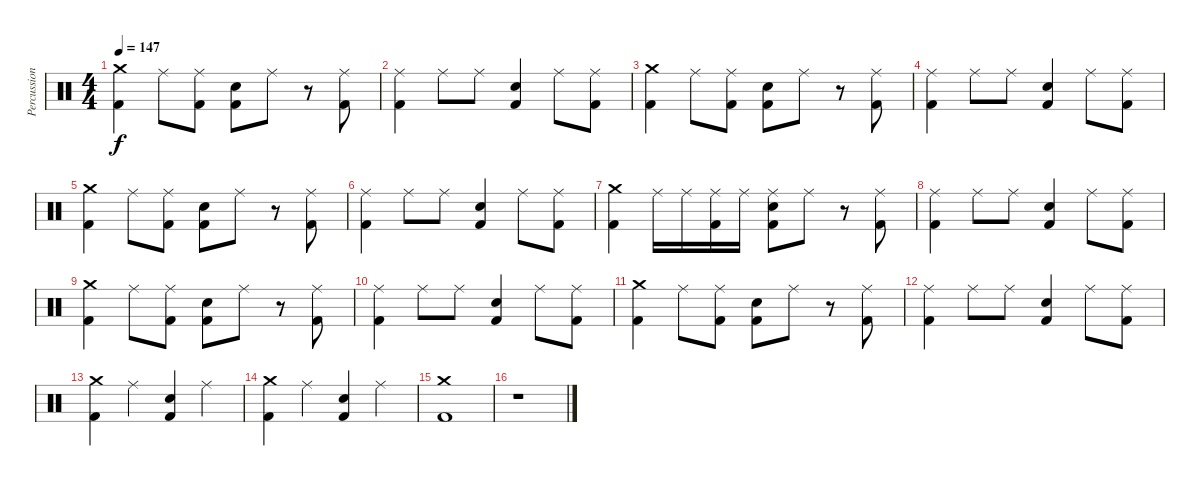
\track ("Percussion" "Percussion") {instrument percussion}
\staff {score}
\articulation defaults
\ts (4 4)
\tempo 147
\clef neutral
\ks c
("Crash medium (hit)" "Kick (hit) 2").4{dy f} "Ride (middle)".8 ("Ride (middle)" "Kick (hit) 2").8 ("Electric Snare (hit)" "Kick (hit) 2").8 "Ride (middle)".8 r.8 ("Ride (middle)" "Kick (hit) 2").8 |
("Ride (middle)" "Kick (hit) 2").4 "Ride (middle)".8 "Ride (middle)".8 ("Electric Snare (hit)" "Kick (hit) 2").4 "Ride (middle)".8 ("Ride (middle)" "Kick (hit) 2").8 |
("Crash medium (hit)" "Kick (hit) 2").4 "Ride (middle)".8 ("Ride (middle)" "Kick (hit) 2").8 ("Electric Snare (hit)" "Kick (hit) 2").8 "Ride (middle)".8 r.8 ("Ride (middle)" "Kick (hit) 2").8 |
("Ride (middle)" "Kick (hit) 2").4 "Ride (middle)".8 "Ride (middle)".8 ("Electric Snare (hit)" "Kick (hit) 2").4 "Ride (middle)".8 ("Ride (middle)" "Kick (hit) 2").8 |
("Crash medium (hit)" "Kick (hit) 2").4 "Ride (middle)".8 ("Ride (middle)" "Kick (hit) 2").8 ("Electric Snare (hit)" "Kick (hit) 2").8 "Ride (middle)".8 r.8 ("Ride (middle)" "Kick (hit) 2").8 |
("Ride (middle)" "Kick (hit) 2").4 "Ride (middle)".8 "Ride (middle)".8 ("Electric Snare (hit)" "Kick (hit) 2").4 "Ride (middle)".8 ("Ride (middle)" "Kick (hit) 2").8 |
("Crash medium (hit)" "Kick (hit) 2").4 "Ride (middle)".16 "Ride (middle)".16 ("Ride (middle)" "Kick (hit) 2").16 "Ride (middle)".16 ("Electric Snare (hit)" "Ride (middle)" "Kick (hit) 2").8 "Ride (middle)".8 r.8 ("Ride (middle)" "Kick (hit) 2").8 |
("Ride (middle)" "Kick (hit) 2").4 "Ride (middle)".8 "Ride (middle)".8 ("Electric Snare (hit)" "Kick (hit) 2").4 "Ride (middle)".8 ("Ride (middle)" "Kick (hit) 2").8 |
("Crash medium (hit)" "Kick (hit) 2").4 "Ride (middle)".8 ("Ride (middle)" "Kick (hit) 2").8 ("Electric Snare (hit)" "Kick (hit) 2").8 "Ride (middle)".8 r.8 ("Ride (middle)" "Kick (hit) 2").8 |
("Ride (middle)" "Kick (hit) 2").4 "Ride (middle)".8 "Ride (middle)".8 ("Electric Snare (hit)" "Kick (hit) 2").4 "Ride (middle)".8 ("Ride (middle)" "Kick (hit) 2").8 |
("Crash medium (hit)" "Kick (hit) 2").4 "Ride (middle)".8 ("Ride (middle)" "Kick (hit) 2").8 ("Electric Snare (hit)" "Kick (hit) 2").8 "Ride (middle)".8 r.8 ("Ride (middle)" "Kick (hit) 2").8 |
("Ride (middle)" "Kick (hit) 2").4 "Ride (middle)".8 "Ride (middle)".8 ("Electric Snare (hit)" "Kick (hit) 2").4 "Ride (middle)".8 ("Ride (middle)" "Kick (hit) 2").8 |
("Crash medium (hit)" "Kick (hit) 2").4 "Ride (middle)".4 ("Electric Snare (hit)" "Kick (hit) 2").4 "Ride (middle)".4 |
("Crash medium (hit)" "Kick (hit) 2").4 "Ride (middle)".4 ("Electric Snare (hit)" "Kick (hit) 2").4 "Ride (middle)".4 |
("Crash medium (hit)" "Kick (hit) 2").1 |
r.1
